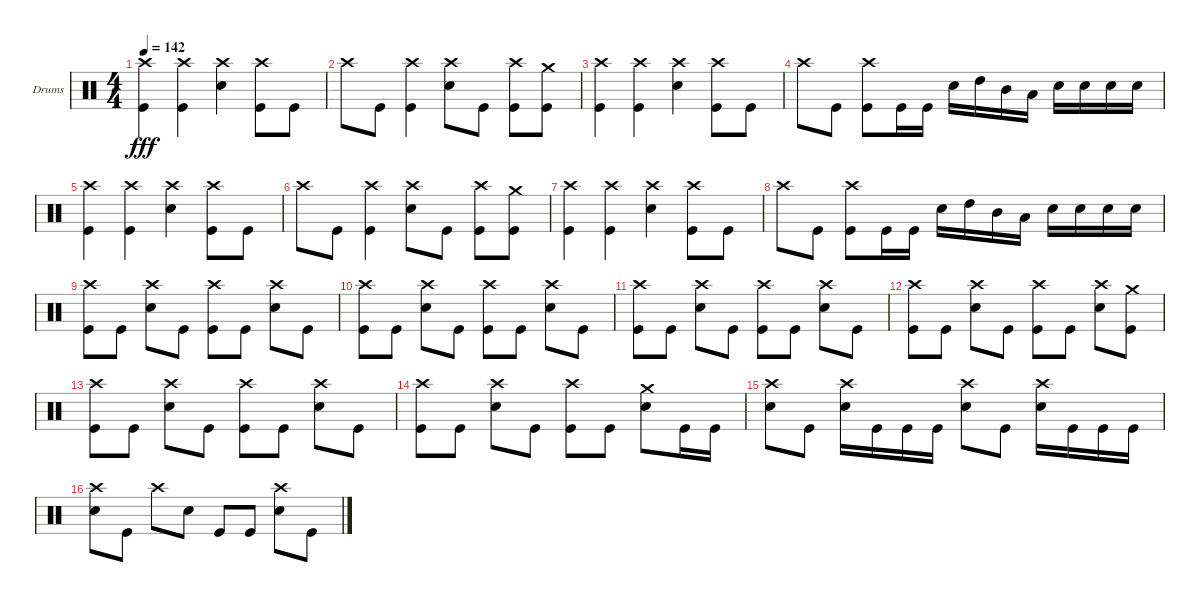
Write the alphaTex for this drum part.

\defaultSystemsLayout 4
\bracketExtendMode groupsimilarinstruments
\firstSystemTrackNameOrientation horizontal
\otherSystemsTrackNameOrientation horizontal
\track ("Drumkit" "Drums") {instrument percussion}
\staff {score}
\articulation defaults
\ts (4 4)
\tempo 142
\clef neutral
\scale
0.333333
\ks c
("Kick (hit)" "Crash high (hit)").4{dy fff} ("Kick (hit)" "Crash high (hit)").4 ("Snare (hit) 2" "Crash high (hit)").4 ("Crash high (hit)" "Kick (hit)").8 "Kick (hit)".8 |
\scale
0.333333 "Crash high (hit)".8 "Kick (hit)".8 ("Kick (hit)" "Crash high (hit)").4 ("Snare (hit) 2" "Crash high (hit)").8 "Kick (hit)".8 ("Kick (hit)" "Crash high (hit)").8 ("Kick (hit)" "Crash medium (hit)").8 |
\scale
0.333333 ("Kick (hit)" "Crash high (hit)").4 ("Kick (hit)" "Crash high (hit)").4 ("Snare (hit) 2" "Crash high (hit)").4 ("Crash high (hit)" "Kick (hit)").8 "Kick (hit)".8 |
\scale
0.333333 "Crash high (hit)".8 "Kick (hit)".8 ("Crash high (hit)" "Kick (hit)").8 "Kick (hit)".16 "Kick (hit)".16 "Snare (hit) 2".16 "High Tom (hit)".16 "Mid Tom (hit)".16 "Low Tom (hit)".16 "Snare (hit) 2".16 "Snare (hit) 2".16 "Snare (hit) 2".16 "Snare (hit) 2".16 |
\scale
0.333333 ("Kick (hit)" "Crash high (hit)").4 ("Kick (hit)" "Crash high (hit)").4 ("Snare (hit) 2" "Crash high (hit)").4 ("Crash high (hit)" "Kick (hit)").8 "Kick (hit)".8 |
\scale
0.333333 "Crash high (hit)".8 "Kick (hit)".8 ("Kick (hit)" "Crash high (hit)").4 ("Snare (hit) 2" "Crash high (hit)").8 "Kick (hit)".8 ("Kick (hit)" "Crash high (hit)").8 ("Kick (hit)" "Crash medium (hit)").8 |
\scale
0.333333 ("Kick (hit)" "Crash high (hit)").4 ("Kick (hit)" "Crash high (hit)").4 ("Snare (hit) 2" "Crash high (hit)").4 ("Crash high (hit)" "Kick (hit)").8 "Kick (hit)".8 |
\scale
0.333333 "Crash high (hit)".8 "Kick (hit)".8 ("Crash high (hit)" "Kick (hit)").8 "Kick (hit)".16 "Kick (hit)".16 "Snare (hit) 2".16 "High Tom (hit)".16 "Mid Tom (hit)".16 "Low Tom (hit)".16 "Snare (hit) 2".16 "Snare (hit) 2".16 "Snare (hit) 2".16 "Snare (hit) 2".16 |
\scale
0.333333 ("Kick (hit)" "Crash high (hit)").8 "Kick (hit)".8 ("Snare (hit) 2" "Crash high (hit)").8 "Kick (hit)".8 ("Kick (hit)" "Crash high (hit)").8 "Kick (hit)".8 ("Snare (hit) 2" "Crash high (hit)").8 "Kick (hit)".8 |
\scale
0.333333 ("Kick (hit)" "Crash high (hit)").8 "Kick (hit)".8 ("Snare (hit) 2" "Crash high (hit)").8 "Kick (hit)".8 ("Kick (hit)" "Crash high (hit)").8 "Kick (hit)".8 ("Snare (hit) 2" "Crash high (hit)").8 "Kick (hit)".8 |
\scale
0.333333 ("Kick (hit)" "Crash high (hit)").8 "Kick (hit)".8 ("Snare (hit) 2" "Crash high (hit)").8 "Kick (hit)".8 ("Kick (hit)" "Crash high (hit)").8 "Kick (hit)".8 ("Snare (hit) 2" "Crash high (hit)").8 "Kick (hit)".8 |
\scale
0.333333 ("Kick (hit)" "Crash high (hit)").8 "Kick (hit)".8 ("Snare (hit) 2" "Crash high (hit)").8 "Kick (hit)".8 ("Kick (hit)" "Crash high (hit)").8 "Kick (hit)".8 ("Snare (hit) 2" "Crash high (hit)").8 ("Kick (hit)" "Crash medium (hit)").8 |
\scale
0.333333 ("Kick (hit)" "Crash high (hit)").8 "Kick (hit)".8 ("Snare (hit) 2" "Crash high (hit)").8 "Kick (hit)".8 ("Kick (hit)" "Crash high (hit)").8 "Kick (hit)".8 ("Snare (hit) 2" "Crash high (hit)").8 "Kick (hit)".8 |
\scale
0.333333 ("Kick (hit)" "Crash high (hit)").8 "Kick (hit)".8 ("Snare (hit) 2" "Crash high (hit)").8 "Kick (hit)".8 ("Kick (hit)" "Crash high (hit)").8 "Kick (hit)".8 ("Crash medium (hit)" "Snare (hit) 2").8 "Kick (hit)".16 "Kick (hit)".16 |
\scale
0.263889 ("Snare (hit) 2" "Crash high (hit)").8 "Kick (hit)".8 ("Snare (hit) 2" "Crash high (hit)").16 "Kick (hit)".16 "Kick (hit)".16 "Kick (hit)".16 ("Snare (hit) 2" "Crash high (hit)").8 "Kick (hit)".8 ("Snare (hit) 2" "Crash high (hit)").16 "Kick (hit)".16 "Kick (hit)".16 "Kick (hit)".16 |
\scale
0.263889 ("Snare (hit) 2" "Crash high (hit)").8 "Kick (hit)".8 "Crash high (hit)".8 "Snare (hit) 2".8 "Kick (hit)".8 "Kick (hit)".8 ("Snare (hit) 2" "Crash high (hit)").8 "Kick (hit)".8
